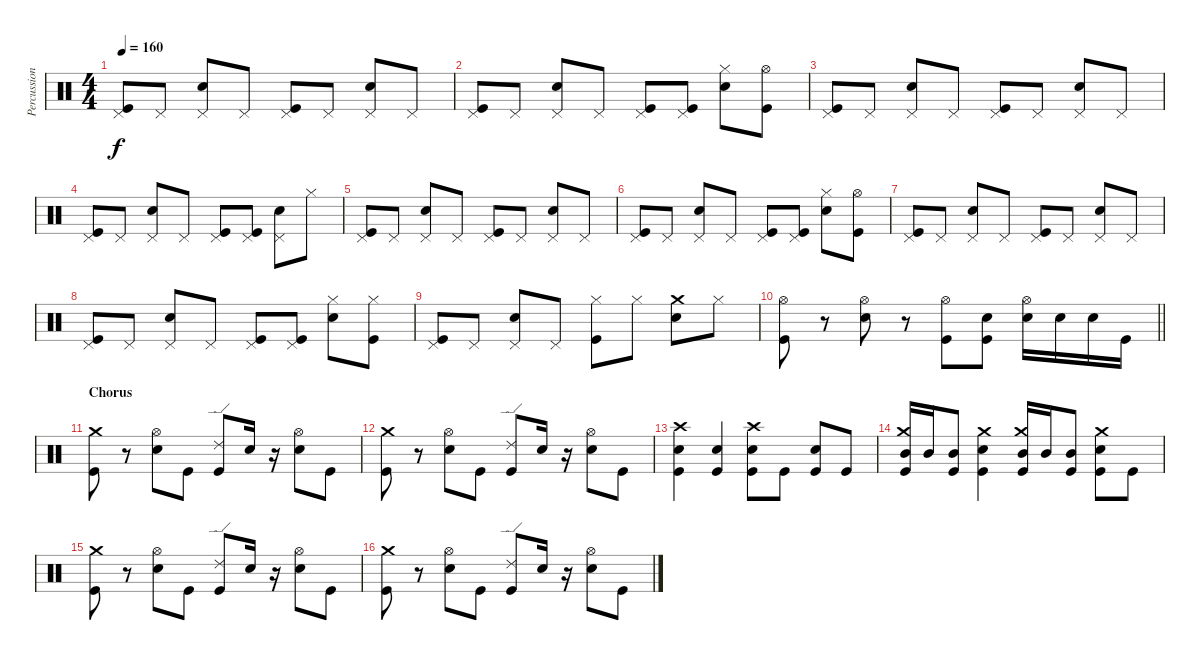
\track ("Percussion" "Percussion") {instrument percussion}
\staff {score}
\articulation defaults
\ts (4 4)
\tempo 160
\clef neutral
\ks c
("Pedal Hi-Hat (hit)" "Kick (hit)").8{dy f} "Pedal Hi-Hat (hit)".8 ("Pedal Hi-Hat (hit)" "Snare (hit) 2").8 "Pedal Hi-Hat (hit)".8 ("Pedal Hi-Hat (hit)" "Kick (hit)").8 "Pedal Hi-Hat (hit)".8 ("Pedal Hi-Hat (hit)" "Snare (hit) 2").8 "Pedal Hi-Hat (hit)".8 |
("Pedal Hi-Hat (hit)" "Kick (hit)").8 "Pedal Hi-Hat (hit)".8 ("Pedal Hi-Hat (hit)" "Snare (hit) 2").8 "Pedal Hi-Hat (hit)".8 ("Pedal Hi-Hat (hit)" "Kick (hit)").8 ("Pedal Hi-Hat (hit)" "Kick (hit)").8 ("Hi-Hat (closed)" "Snare (hit) 2").8 ("Hi-Hat (open)" "Kick (hit)").8 |
("Pedal Hi-Hat (hit)" "Kick (hit)").8 "Pedal Hi-Hat (hit)".8 ("Pedal Hi-Hat (hit)" "Snare (hit) 2").8 "Pedal Hi-Hat (hit)".8 ("Pedal Hi-Hat (hit)" "Kick (hit)").8 "Pedal Hi-Hat (hit)".8 ("Pedal Hi-Hat (hit)" "Snare (hit) 2").8 "Pedal Hi-Hat (hit)".8 |
("Pedal Hi-Hat (hit)" "Kick (hit)").8 "Pedal Hi-Hat (hit)".8 ("Pedal Hi-Hat (hit)" "Snare (hit) 2").8 "Pedal Hi-Hat (hit)".8 ("Pedal Hi-Hat (hit)" "Kick (hit)").8 ("Pedal Hi-Hat (hit)" "Kick (hit)").8 ("Pedal Hi-Hat (hit)" "Snare (hit) 2").8 "Hi-Hat (closed)".8 |
("Pedal Hi-Hat (hit)" "Kick (hit)").8 "Pedal Hi-Hat (hit)".8 ("Pedal Hi-Hat (hit)" "Snare (hit) 2").8 "Pedal Hi-Hat (hit)".8 ("Pedal Hi-Hat (hit)" "Kick (hit)").8 "Pedal Hi-Hat (hit)".8 ("Pedal Hi-Hat (hit)" "Snare (hit) 2").8 "Pedal Hi-Hat (hit)".8 |
("Pedal Hi-Hat (hit)" "Kick (hit)").8 "Pedal Hi-Hat (hit)".8 ("Pedal Hi-Hat (hit)" "Snare (hit) 2").8 "Pedal Hi-Hat (hit)".8 ("Pedal Hi-Hat (hit)" "Kick (hit)").8 ("Pedal Hi-Hat (hit)" "Kick (hit)").8 ("Hi-Hat (closed)" "Snare (hit) 2").8 ("Hi-Hat (open)" "Kick (hit)").8 |
("Pedal Hi-Hat (hit)" "Kick (hit)").8 "Pedal Hi-Hat (hit)".8 ("Pedal Hi-Hat (hit)" "Snare (hit) 2").8 "Pedal Hi-Hat (hit)".8 ("Pedal Hi-Hat (hit)" "Kick (hit)").8 "Pedal Hi-Hat (hit)".8 ("Pedal Hi-Hat (hit)" "Snare (hit) 2").8 "Pedal Hi-Hat (hit)".8 |
("Pedal Hi-Hat (hit)" "Kick (hit)").8 "Pedal Hi-Hat (hit)".8 ("Pedal Hi-Hat (hit)" "Snare (hit) 2").8 "Pedal Hi-Hat (hit)".8 ("Pedal Hi-Hat (hit)" "Kick (hit)").8 ("Pedal Hi-Hat (hit)" "Kick (hit)").8 ("Hi-Hat (closed)" "Snare (hit) 2").8 ("Hi-Hat (closed)" "Kick (hit)").8 |
("Pedal Hi-Hat (hit)" "Kick (hit)").8 "Pedal Hi-Hat (hit)".8 ("Pedal Hi-Hat (hit)" "Snare (hit) 2").8 "Pedal Hi-Hat (hit)".8 ("Hi-Hat (closed)" "Kick (hit)").8 "Hi-Hat (closed)".8 ("Crash medium (hit)" "Snare (hit) 2").8 "Hi-Hat (closed)".8 |
\barLineRight lightlight
("Hi-Hat (open)" "Kick (hit)").8 r.8 ("Hi-Hat (open)" "Snare (hit) 2").8 r.8 ("Hi-Hat (open)" "Kick (hit)").8 ("Snare (hit) 2" "Kick (hit)").8 ("Hi-Hat (open)" "Snare (hit) 2").16 "Snare (hit) 2".16 "Snare (hit) 2".16 "Kick (hit)".16 |
\section ("" "Chorus")
("Crash medium (hit)" "Kick (hit)").8 r.8 ("Hi-Hat (open)" "Snare (hit) 2").8 "Kick (hit)".8 ("Ride (edge) 2" "Kick (hit)").8 "Snare (hit) 2".16 r.16 ("Hi-Hat (open)" "Snare (hit) 2").8 "Kick (hit)".8 |
("Crash medium (hit)" "Kick (hit)").8 r.8 ("Hi-Hat (open)" "Snare (hit) 2").8 "Kick (hit)".8 ("Ride (edge) 2" "Kick (hit)").8 "Snare (hit) 2".16 r.16 ("Hi-Hat (open)" "Snare (hit) 2").8 "Kick (hit)".8 |
("Crash high (hit)" "Snare (hit) 2" "Kick (hit)").4 ("Snare (hit) 2" "Kick (hit)").4 ("Crash high (hit)" "Snare (hit) 2" "Kick (hit)").8 "Kick (hit)".8 ("Snare (hit) 2" "Kick (hit)").8 "Kick (hit)".8 |
("Crash medium (hit)" "Mid Tom (hit)" "Kick (hit)").16 "Mid Tom (hit)".16 ("Mid Tom (hit)" "Kick (hit)").8 ("Crash medium (hit)" "Snare (hit) 2" "Kick (hit)").4 ("Crash medium (hit)" "Mid Tom (hit)" "Kick (hit)").16 "Mid Tom (hit)".16 ("Mid Tom (hit)" "Kick (hit)").8 ("Crash medium (hit)" "Snare (hit) 2" "Kick (hit)").8 "Kick (hit)".8 |
("Crash medium (hit)" "Kick (hit)").8 r.8 ("Hi-Hat (open)" "Snare (hit) 2").8 "Kick (hit)".8 ("Ride (edge) 2" "Kick (hit)").8 "Snare (hit) 2".16 r.16 ("Hi-Hat (open)" "Snare (hit) 2").8 "Kick (hit)".8 |
("Crash medium (hit)" "Kick (hit)").8 r.8 ("Hi-Hat (open)" "Snare (hit) 2").8 "Kick (hit)".8 ("Ride (edge) 2" "Kick (hit)").8 "Snare (hit) 2".16 r.16 ("Hi-Hat (open)" "Snare (hit) 2").8 "Kick (hit)".8
